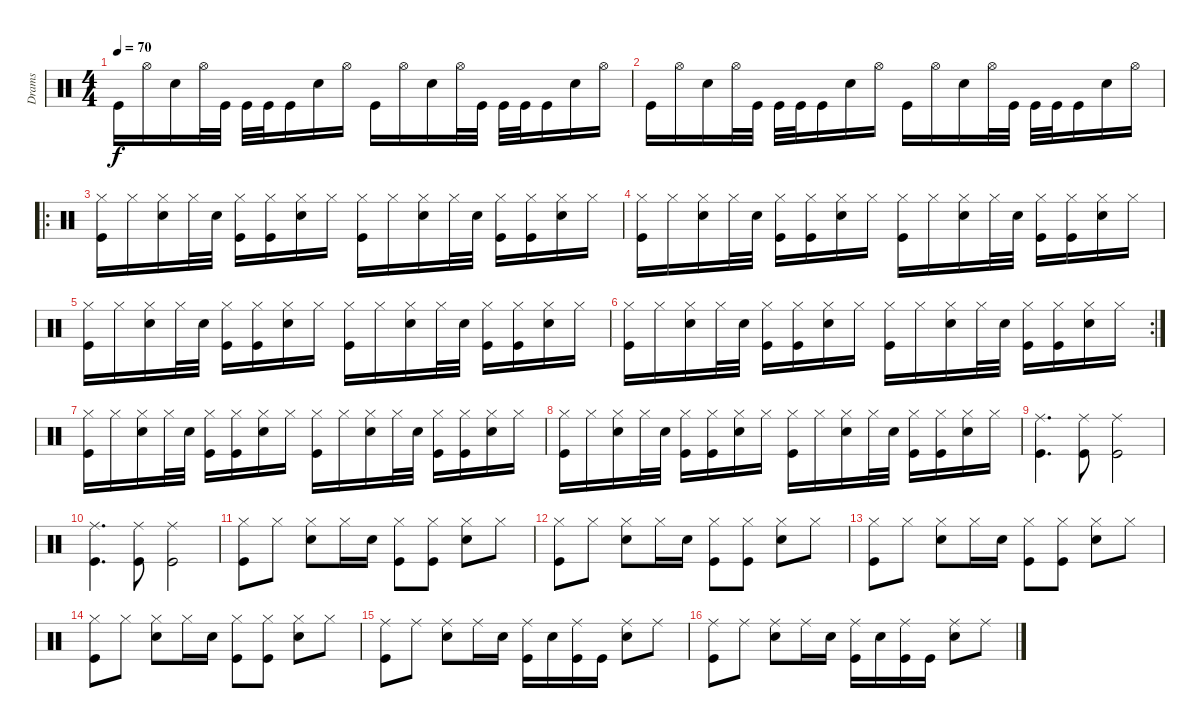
\track ("Drams" "Drams") {instrument percussion}
\staff {score}
\articulation defaults
\ts (4 4)
\tempo 70
\clef neutral
\ks aminor "Kick (hit)".16{dy f} "Hi-Hat (open)".16 "Electric Snare (hit)".16 "Hi-Hat (open)".32 "Kick (hit)".32 "Kick (hit)".32 "Kick (hit)".32 "Kick (hit)".16 "Electric Snare (hit)".16 "Hi-Hat (open)".16 "Kick (hit)".16 "Hi-Hat (open)".16 "Electric Snare (hit)".16 "Hi-Hat (open)".32 "Kick (hit)".32 "Kick (hit)".32 "Kick (hit)".32 "Kick (hit)".16 "Electric Snare (hit)".16 "Hi-Hat (open)".16
|
"Kick (hit)".16 "Hi-Hat (open)".16 "Electric Snare (hit)".16 "Hi-Hat (open)".32 "Kick (hit)".32 "Kick (hit)".32 "Kick (hit)".32 "Kick (hit)".16 "Electric Snare (hit)".16 "Hi-Hat (open)".16 "Kick (hit)".16 "Hi-Hat (open)".16 "Electric Snare (hit)".16 "Hi-Hat (open)".32 "Kick (hit)".32 "Kick (hit)".32 "Kick (hit)".32 "Kick (hit)".16 "Electric Snare (hit)".16 "Hi-Hat (open)".16 |
\ro
("Kick (hit)" "Hi-Hat (closed)").16 "Hi-Hat (closed)".16 ("Electric Snare (hit)" "Hi-Hat (closed)").16 "Hi-Hat (closed)".32 "Electric Snare (hit)".32 ("Kick (hit)" "Hi-Hat (closed)").16 ("Hi-Hat (closed)" "Kick (hit)").16 ("Hi-Hat (closed)" "Electric Snare (hit)").16 "Hi-Hat (closed)".16 ("Kick (hit)" "Hi-Hat (closed)").16 "Hi-Hat (closed)".16 ("Electric Snare (hit)" "Hi-Hat (closed)").16 "Hi-Hat (closed)".32 "Electric Snare (hit)".32 ("Kick (hit)" "Hi-Hat (closed)").16 ("Kick (hit)" "Hi-Hat (closed)").16 ("Electric Snare (hit)" "Hi-Hat (closed)").16 "Hi-Hat (closed)".16 |
("Kick (hit)" "Hi-Hat (closed)").16 "Hi-Hat (closed)".16 ("Electric Snare (hit)" "Hi-Hat (closed)").16 "Hi-Hat (closed)".32 "Electric Snare (hit)".32 ("Kick (hit)" "Hi-Hat (closed)").16 ("Hi-Hat (closed)" "Kick (hit)").16 ("Hi-Hat (closed)" "Electric Snare (hit)").16 "Hi-Hat (closed)".16 ("Kick (hit)" "Hi-Hat (closed)").16 "Hi-Hat (closed)".16 ("Electric Snare (hit)" "Hi-Hat (closed)").16 "Hi-Hat (closed)".32 "Electric Snare (hit)".32 ("Kick (hit)" "Hi-Hat (closed)").16 ("Kick (hit)" "Hi-Hat (closed)").16 ("Electric Snare (hit)" "Hi-Hat (closed)").16 "Hi-Hat (closed)".16 |
("Kick (hit)" "Hi-Hat (closed)").16 "Hi-Hat (closed)".16 ("Electric Snare (hit)" "Hi-Hat (closed)").16 "Hi-Hat (closed)".32 "Electric Snare (hit)".32 ("Kick (hit)" "Hi-Hat (closed)").16 ("Hi-Hat (closed)" "Kick (hit)").16 ("Hi-Hat (closed)" "Electric Snare (hit)").16 "Hi-Hat (closed)".16 ("Kick (hit)" "Hi-Hat (closed)").16 "Hi-Hat (closed)".16 ("Electric Snare (hit)" "Hi-Hat (closed)").16 "Hi-Hat (closed)".32 "Electric Snare (hit)".32 ("Kick (hit)" "Hi-Hat (closed)").16 ("Kick (hit)" "Hi-Hat (closed)").16 ("Electric Snare (hit)" "Hi-Hat (closed)").16 "Hi-Hat (closed)".16 |
\rc 2
("Kick (hit)" "Hi-Hat (closed)").16 "Hi-Hat (closed)".16 ("Electric Snare (hit)" "Hi-Hat (closed)").16 "Hi-Hat (closed)".32 "Electric Snare (hit)".32 ("Kick (hit)" "Hi-Hat (closed)").16 ("Hi-Hat (closed)" "Kick (hit)").16 ("Hi-Hat (closed)" "Electric Snare (hit)").16 "Hi-Hat (closed)".16 ("Kick (hit)" "Hi-Hat (closed)").16 "Hi-Hat (closed)".16 ("Electric Snare (hit)" "Hi-Hat (closed)").16 "Hi-Hat (closed)".32 "Electric Snare (hit)".32 ("Kick (hit)" "Hi-Hat (closed)").16 ("Kick (hit)" "Hi-Hat (closed)").16 ("Electric Snare (hit)" "Hi-Hat (closed)").16 "Hi-Hat (closed)".16 |
("Kick (hit)" "Hi-Hat (closed)").16 "Hi-Hat (closed)".16 ("Electric Snare (hit)" "Hi-Hat (closed)").16 "Hi-Hat (closed)".32 "Electric Snare (hit)".32 ("Kick (hit)" "Hi-Hat (closed)").16 ("Hi-Hat (closed)" "Kick (hit)").16 ("Hi-Hat (closed)" "Electric Snare (hit)").16 "Hi-Hat (closed)".16 ("Kick (hit)" "Hi-Hat (closed)").16 "Hi-Hat (closed)".16 ("Electric Snare (hit)" "Hi-Hat (closed)").16 "Hi-Hat (closed)".32 "Electric Snare (hit)".32 ("Kick (hit)" "Hi-Hat (closed)").16 ("Kick (hit)" "Hi-Hat (closed)").16 ("Electric Snare (hit)" "Hi-Hat (closed)").16 "Hi-Hat (closed)".16 |
("Kick (hit)" "Hi-Hat (closed)").16 "Hi-Hat (closed)".16 ("Electric Snare (hit)" "Hi-Hat (closed)").16 "Hi-Hat (closed)".32 "Electric Snare (hit)".32 ("Kick (hit)" "Hi-Hat (closed)").16 ("Hi-Hat (closed)" "Kick (hit)").16 ("Hi-Hat (closed)" "Electric Snare (hit)").16 "Hi-Hat (closed)".16 ("Kick (hit)" "Hi-Hat (closed)").16 "Hi-Hat (closed)".16 ("Electric Snare (hit)" "Hi-Hat (closed)").16 "Hi-Hat (closed)".32 "Electric Snare (hit)".32 ("Kick (hit)" "Hi-Hat (closed)").16 ("Kick (hit)" "Hi-Hat (closed)").16 ("Electric Snare (hit)" "Hi-Hat (closed)").16 "Hi-Hat (closed)".16 |
("Kick (hit)" "Ride (middle)").4{d} ("Kick (hit)" "Ride (middle)").8 ("Kick (hit)" "Ride (middle)").2 |
("Kick (hit)" "Ride (middle)").4{d} ("Kick (hit)" "Ride (middle)").8 ("Kick (hit)" "Ride (middle)").2 |
("Kick (hit)" "Hi-Hat (closed)").8 "Hi-Hat (closed)".8 ("Hi-Hat (closed)" "Electric Snare (hit)").8 "Hi-Hat (closed)".16 "Electric Snare (hit)".16 ("Kick (hit)" "Hi-Hat (closed)").8 ("Kick (hit)" "Hi-Hat (closed)").8 ("Electric Snare (hit)" "Hi-Hat (closed)").8 "Hi-Hat (closed)".8 |
("Kick (hit)" "Hi-Hat (closed)").8 "Hi-Hat (closed)".8 ("Hi-Hat (closed)" "Electric Snare (hit)").8 "Hi-Hat (closed)".16 "Electric Snare (hit)".16 ("Kick (hit)" "Hi-Hat (closed)").8 ("Kick (hit)" "Hi-Hat (closed)").8 ("Electric Snare (hit)" "Hi-Hat (closed)").8 "Hi-Hat (closed)".8 |
("Kick (hit)" "Hi-Hat (closed)").8 "Hi-Hat (closed)".8 ("Hi-Hat (closed)" "Electric Snare (hit)").8 "Hi-Hat (closed)".16 "Electric Snare (hit)".16 ("Kick (hit)" "Hi-Hat (closed)").8 ("Kick (hit)" "Hi-Hat (closed)").8 ("Electric Snare (hit)" "Hi-Hat (closed)").8 "Hi-Hat (closed)".8 |
("Kick (hit)" "Hi-Hat (closed)").8 "Hi-Hat (closed)".8 ("Hi-Hat (closed)" "Electric Snare (hit)").8 "Hi-Hat (closed)".16 "Electric Snare (hit)".16 ("Kick (hit)" "Hi-Hat (closed)").8 ("Kick (hit)" "Hi-Hat (closed)").8 ("Electric Snare (hit)" "Hi-Hat (closed)").8 "Hi-Hat (closed)".8 |
("Kick (hit)" "Ride (middle)").8 "Ride (middle)".8 ("Electric Snare (hit)" "Ride (middle)").8 "Ride (middle)".16 "Electric Snare (hit)".16 ("Kick (hit)" "Ride (middle)").16 "Electric Snare (hit)".16 ("Kick (hit)" "Ride (middle)").16 "Kick (hit)".16 ("Electric Snare (hit)" "Ride (middle)").8 "Ride (middle)".8 |
("Kick (hit)" "Ride (middle)").8 "Ride (middle)".8 ("Electric Snare (hit)" "Ride (middle)").8 "Ride (middle)".16 "Electric Snare (hit)".16 ("Kick (hit)" "Ride (middle)").16 "Electric Snare (hit)".16 ("Kick (hit)" "Ride (middle)").16 "Kick (hit)".16 ("Electric Snare (hit)" "Ride (middle)").8 "Ride (middle)".8
